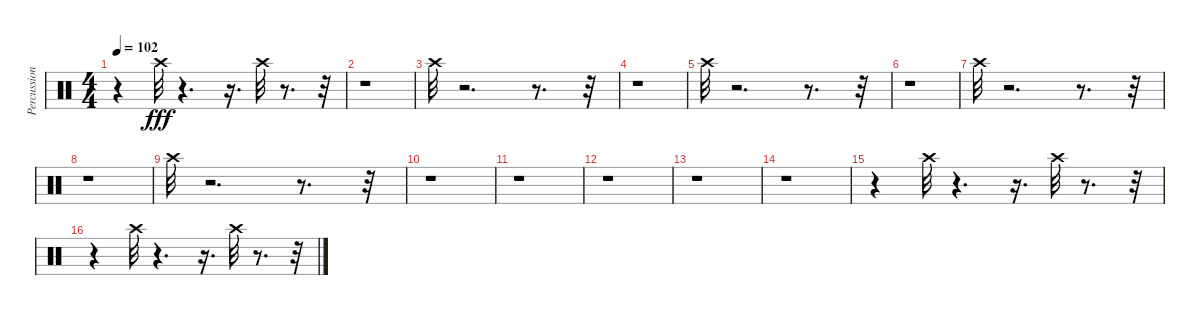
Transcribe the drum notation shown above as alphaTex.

\track ("Percussion" "Percussion") {instrument percussion}
\staff {score}
\articulation defaults
\ts (4 4)
\tempo 102
\clef neutral
\ks c
r.4{dy fff} "Crash high (hit)".32 r.4{d} r.16{d} "Crash high (hit)".32 r.8{d} r.32 |
r.1 |
"Crash high (hit)".32 r.2{d} r.8{d} r.32 |
r.1 |
"Crash high (hit)".32 r.2{d} r.8{d} r.32 |
r.1 |
"Crash high (hit)".32 r.2{d} r.8{d} r.32 |
r.1 |
"Crash high (hit)".32 r.2{d} r.8{d} r.32 |
r.1 |
r.1 |
r.1 |
r.1 |
r.1 |
r.4 "Crash high (hit)".32 r.4{d} r.16{d} "Crash high (hit)".32 r.8{d} r.32 |
r.4 "Crash high (hit)".32 r.4{d} r.16{d} "Crash high (hit)".32 r.8{d} r.32
